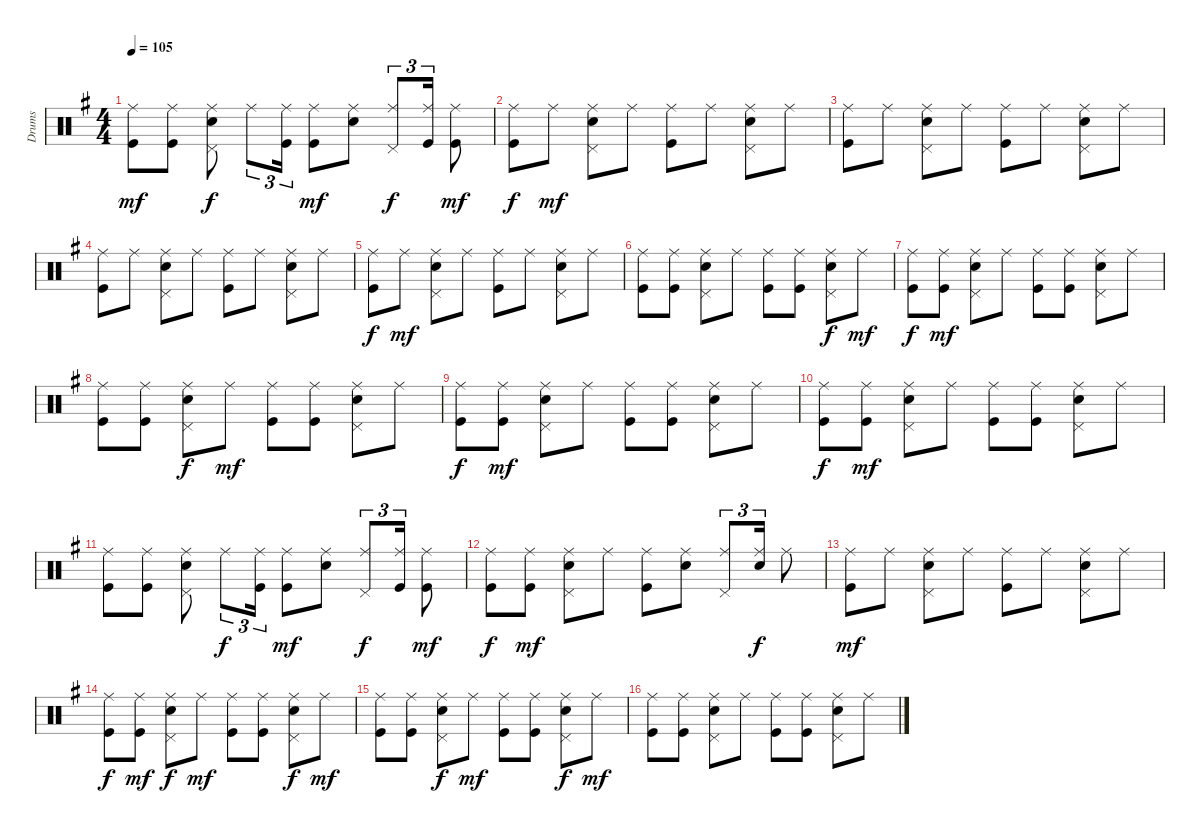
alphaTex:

\track ("Drums" "Drums") {instrument percussion}
\staff {score}
\articulation defaults
\ts (4 4)
\tempo 105
\clef neutral
\ks eminor
("Ride (middle)" "Kick (hit)").8{dy mf} ("Ride (middle)" "Kick (hit)").8 ("Ride (middle)" "Pedal Hi-Hat (hit)" "Snare (hit) 2").8{dy f} "Ride (middle)".8{tu (3 2)} ("Ride (middle)" "Kick (hit)").16{tu (3 2)} ("Ride (middle)" "Kick (hit)").8{dy mf} ("Ride (middle)" "Snare (hit) 2").8 ("Ride (middle)" "Pedal Hi-Hat (hit)").8{tu (3 2) dy f} ("Ride (middle)" "Kick (hit)").16{tu (3 2)} ("Ride (middle)" "Kick (hit)").8{dy mf} |
("Ride (middle)" "Kick (hit)").8{dy f} "Ride (middle)".8{dy mf} ("Ride (middle)" "Pedal Hi-Hat (hit)" "Snare (hit) 2").8 "Ride (middle)".8 ("Ride (middle)" "Kick (hit)").8 "Ride (middle)".8 ("Ride (middle)" "Pedal Hi-Hat (hit)" "Snare (hit) 2").8 "Ride (middle)".8 |
("Ride (middle)" "Kick (hit)").8 "Ride (middle)".8 ("Ride (middle)" "Pedal Hi-Hat (hit)" "Snare (hit) 2").8 "Ride (middle)".8 ("Ride (middle)" "Kick (hit)").8 "Ride (middle)".8 ("Ride (middle)" "Pedal Hi-Hat (hit)" "Snare (hit) 2").8 "Ride (middle)".8 |
("Ride (middle)" "Kick (hit)").8 "Ride (middle)".8 ("Ride (middle)" "Pedal Hi-Hat (hit)" "Snare (hit) 2").8 "Ride (middle)".8 ("Ride (middle)" "Kick (hit)").8 "Ride (middle)".8 ("Ride (middle)" "Pedal Hi-Hat (hit)" "Snare (hit) 2").8 "Ride (middle)".8 |
("Ride (middle)" "Kick (hit)").8{dy f} "Ride (middle)".8{dy mf} ("Ride (middle)" "Pedal Hi-Hat (hit)" "Snare (hit) 2").8 "Ride (middle)".8 ("Ride (middle)" "Kick (hit)").8 "Ride (middle)".8 ("Ride (middle)" "Pedal Hi-Hat (hit)" "Snare (hit) 2").8 "Ride (middle)".8 |
("Ride (middle)" "Kick (hit)").8 ("Ride (middle)" "Kick (hit)").8 ("Ride (middle)" "Pedal Hi-Hat (hit)" "Snare (hit) 2").8 "Ride (middle)".8 ("Ride (middle)" "Kick (hit)").8 ("Ride (middle)" "Kick (hit)").8 ("Ride (middle)" "Pedal Hi-Hat (hit)" "Snare (hit) 2").8{dy f} "Ride (middle)".8{dy mf} |
("Ride (middle)" "Kick (hit)").8{dy f} ("Ride (middle)" "Kick (hit)").8{dy mf} ("Ride (middle)" "Pedal Hi-Hat (hit)" "Snare (hit) 2").8 "Ride (middle)".8 ("Ride (middle)" "Kick (hit)").8 ("Ride (middle)" "Kick (hit)").8 ("Ride (middle)" "Pedal Hi-Hat (hit)" "Snare (hit) 2").8 "Ride (middle)".8 |
("Ride (middle)" "Kick (hit)").8 ("Ride (middle)" "Kick (hit)").8 ("Ride (middle)" "Pedal Hi-Hat (hit)" "Snare (hit) 2").8{dy f} "Ride (middle)".8{dy mf} ("Ride (middle)" "Kick (hit)").8 ("Ride (middle)" "Kick (hit)").8 ("Ride (middle)" "Pedal Hi-Hat (hit)" "Snare (hit) 2").8 "Ride (middle)".8 |
("Ride (middle)" "Kick (hit)").8{dy f} ("Ride (middle)" "Kick (hit)").8{dy mf} ("Ride (middle)" "Pedal Hi-Hat (hit)" "Snare (hit) 2").8 "Ride (middle)".8 ("Ride (middle)" "Kick (hit)").8 ("Ride (middle)" "Kick (hit)").8 ("Ride (middle)" "Pedal Hi-Hat (hit)" "Snare (hit) 2").8 "Ride (middle)".8 |
("Ride (middle)" "Kick (hit)").8{dy f} ("Ride (middle)" "Kick (hit)").8{dy mf} ("Ride (middle)" "Pedal Hi-Hat (hit)" "Snare (hit) 2").8 "Ride (middle)".8 ("Ride (middle)" "Kick (hit)").8 ("Ride (middle)" "Kick (hit)").8 ("Ride (middle)" "Pedal Hi-Hat (hit)" "Snare (hit) 2").8 "Ride (middle)".8 |
("Ride (middle)" "Kick (hit)").8 ("Ride (middle)" "Kick (hit)").8 ("Ride (middle)" "Pedal Hi-Hat (hit)" "Snare (hit) 2").8 "Ride (middle)".8{tu (3 2) dy f} ("Ride (middle)" "Kick (hit)").16{tu (3 2)} ("Ride (middle)" "Kick (hit)").8{dy mf} ("Ride (middle)" "Snare (hit) 2").8 ("Ride (middle)" "Pedal Hi-Hat (hit)").8{tu (3 2) dy f} ("Ride (middle)" "Kick (hit)").16{tu (3 2)} ("Ride (middle)" "Kick (hit)").8{dy mf} |
("Ride (middle)" "Kick (hit)").8{dy f} ("Ride (middle)" "Kick (hit)").8{dy mf} ("Ride (middle)" "Pedal Hi-Hat (hit)" "Snare (hit) 2").8 "Ride (middle)".8 ("Ride (middle)" "Kick (hit)").8 ("Ride (middle)" "Snare (hit) 2").8 ("Ride (middle)" "Pedal Hi-Hat (hit)").8{tu (3 2)} ("Ride (middle)" "Snare (hit) 2").16{tu (3 2) dy f} "Ride (middle)".8 |
("Ride (middle)" "Kick (hit)").8{dy mf} "Ride (middle)".8 ("Ride (middle)" "Pedal Hi-Hat (hit)" "Snare (hit) 2").8 "Ride (middle)".8 ("Ride (middle)" "Kick (hit)").8 "Ride (middle)".8 ("Ride (middle)" "Pedal Hi-Hat (hit)" "Snare (hit) 2").8 "Ride (middle)".8 |
("Ride (middle)" "Kick (hit)").8{dy f} ("Ride (middle)" "Kick (hit)").8{dy mf} ("Ride (middle)" "Pedal Hi-Hat (hit)" "Snare (hit) 2").8{dy f} "Ride (middle)".8{dy mf} ("Ride (middle)" "Kick (hit)").8 ("Ride (middle)" "Kick (hit)").8 ("Ride (middle)" "Pedal Hi-Hat (hit)" "Snare (hit) 2").8{dy f} "Ride (middle)".8{dy mf} |
("Ride (middle)" "Kick (hit)").8 ("Ride (middle)" "Kick (hit)").8 ("Ride (middle)" "Pedal Hi-Hat (hit)" "Snare (hit) 2").8{dy f} "Ride (middle)".8{dy mf} ("Ride (middle)" "Kick (hit)").8 ("Ride (middle)" "Kick (hit)").8 ("Ride (middle)" "Pedal Hi-Hat (hit)" "Snare (hit) 2").8{dy f} "Ride (middle)".8{dy mf} |
("Ride (middle)" "Kick (hit)").8 ("Ride (middle)" "Kick (hit)").8 ("Ride (middle)" "Pedal Hi-Hat (hit)" "Snare (hit) 2").8 "Ride (middle)".8 ("Ride (middle)" "Kick (hit)").8 ("Ride (middle)" "Kick (hit)").8 ("Ride (middle)" "Pedal Hi-Hat (hit)" "Snare (hit) 2").8 "Ride (middle)".8
